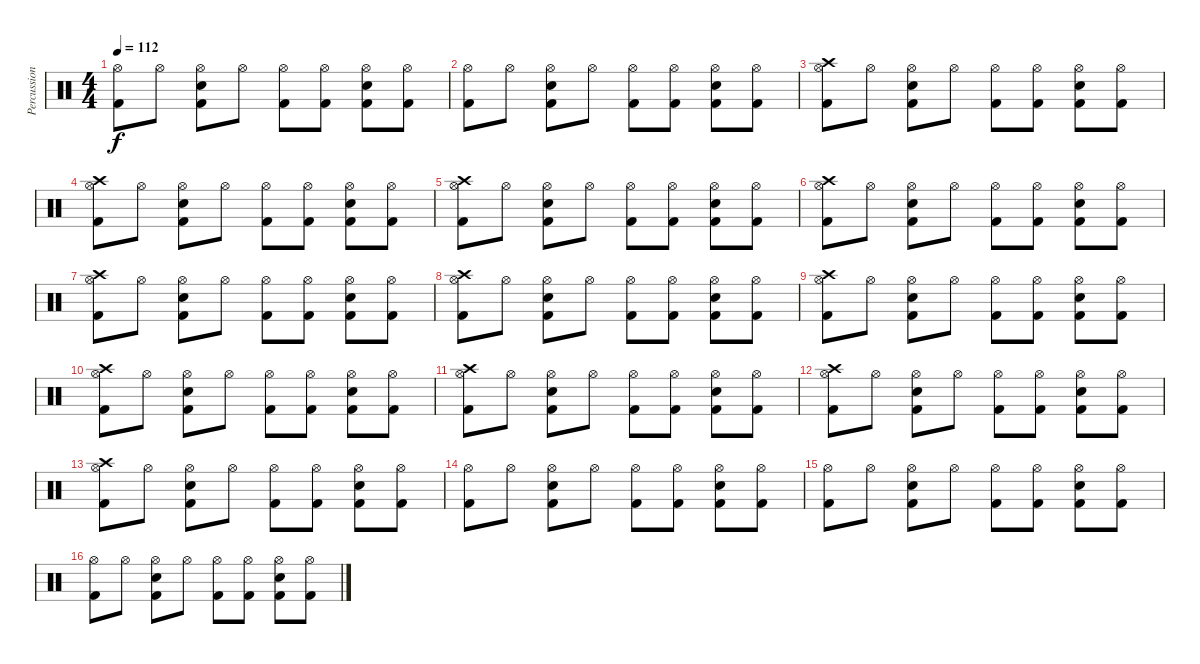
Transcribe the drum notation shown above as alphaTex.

\track ("Percussion" "Percussion") {instrument percussion}
\staff {score}
\articulation defaults
\ts (4 4)
\tempo 112
\clef neutral
\ks c
("Hi-Hat (open)" "Kick (hit) 2").8{dy f} "Hi-Hat (open)".8 ("Hi-Hat (open)" "Electric Snare (hit)" "Kick (hit) 2").8 "Hi-Hat (open)".8 ("Hi-Hat (open)" "Kick (hit) 2").8 ("Hi-Hat (open)" "Kick (hit) 2").8 ("Hi-Hat (open)" "Electric Snare (hit)" "Kick (hit) 2").8 ("Hi-Hat (open)" "Kick (hit) 2").8 |
("Hi-Hat (open)" "Kick (hit) 2").8 "Hi-Hat (open)".8 ("Hi-Hat (open)" "Electric Snare (hit)" "Kick (hit) 2").8 "Hi-Hat (open)".8 ("Hi-Hat (open)" "Kick (hit) 2").8 ("Hi-Hat (open)" "Kick (hit) 2").8 ("Hi-Hat (open)" "Electric Snare (hit)" "Kick (hit) 2").8 ("Hi-Hat (open)" "Kick (hit) 2").8 |
("Hi-Hat (open)" "Crash high (hit)" "Kick (hit) 2").8 "Hi-Hat (open)".8 ("Hi-Hat (open)" "Electric Snare (hit)" "Kick (hit) 2").8 "Hi-Hat (open)".8 ("Hi-Hat (open)" "Kick (hit) 2").8 ("Hi-Hat (open)" "Kick (hit) 2").8 ("Hi-Hat (open)" "Electric Snare (hit)" "Kick (hit) 2").8 ("Hi-Hat (open)" "Kick (hit) 2").8 |
("Hi-Hat (open)" "Crash high (hit)" "Kick (hit) 2").8 "Hi-Hat (open)".8 ("Hi-Hat (open)" "Electric Snare (hit)" "Kick (hit) 2").8 "Hi-Hat (open)".8 ("Hi-Hat (open)" "Kick (hit) 2").8 ("Hi-Hat (open)" "Kick (hit) 2").8 ("Hi-Hat (open)" "Electric Snare (hit)" "Kick (hit) 2").8 ("Hi-Hat (open)" "Kick (hit) 2").8 |
("Hi-Hat (open)" "Crash high (hit)" "Kick (hit) 2").8 "Hi-Hat (open)".8 ("Hi-Hat (open)" "Electric Snare (hit)" "Kick (hit) 2").8 "Hi-Hat (open)".8 ("Hi-Hat (open)" "Kick (hit) 2").8 ("Hi-Hat (open)" "Kick (hit) 2").8 ("Hi-Hat (open)" "Electric Snare (hit)" "Kick (hit) 2").8 ("Hi-Hat (open)" "Kick (hit) 2").8 |
("Hi-Hat (open)" "Crash high (hit)" "Kick (hit) 2").8 "Hi-Hat (open)".8 ("Hi-Hat (open)" "Electric Snare (hit)" "Kick (hit) 2").8 "Hi-Hat (open)".8 ("Hi-Hat (open)" "Kick (hit) 2").8 ("Hi-Hat (open)" "Kick (hit) 2").8 ("Hi-Hat (open)" "Electric Snare (hit)" "Kick (hit) 2").8 ("Hi-Hat (open)" "Kick (hit) 2").8 |
("Hi-Hat (open)" "Crash high (hit)" "Kick (hit) 2").8 "Hi-Hat (open)".8 ("Hi-Hat (open)" "Electric Snare (hit)" "Kick (hit) 2").8 "Hi-Hat (open)".8 ("Hi-Hat (open)" "Kick (hit) 2").8 ("Hi-Hat (open)" "Kick (hit) 2").8 ("Hi-Hat (open)" "Electric Snare (hit)" "Kick (hit) 2").8 ("Hi-Hat (open)" "Kick (hit) 2").8 |
("Hi-Hat (open)" "Crash high (hit)" "Kick (hit) 2").8 "Hi-Hat (open)".8 ("Hi-Hat (open)" "Electric Snare (hit)" "Kick (hit) 2").8 "Hi-Hat (open)".8 ("Hi-Hat (open)" "Kick (hit) 2").8 ("Hi-Hat (open)" "Kick (hit) 2").8 ("Hi-Hat (open)" "Electric Snare (hit)" "Kick (hit) 2").8 ("Hi-Hat (open)" "Kick (hit) 2").8 |
("Hi-Hat (open)" "Crash high (hit)" "Kick (hit) 2").8 "Hi-Hat (open)".8 ("Hi-Hat (open)" "Electric Snare (hit)" "Kick (hit) 2").8 "Hi-Hat (open)".8 ("Hi-Hat (open)" "Kick (hit) 2").8 ("Hi-Hat (open)" "Kick (hit) 2").8 ("Hi-Hat (open)" "Electric Snare (hit)" "Kick (hit) 2").8 ("Hi-Hat (open)" "Kick (hit) 2").8 |
("Hi-Hat (open)" "Crash high (hit)" "Kick (hit) 2").8 "Hi-Hat (open)".8 ("Hi-Hat (open)" "Electric Snare (hit)" "Kick (hit) 2").8 "Hi-Hat (open)".8 ("Hi-Hat (open)" "Kick (hit) 2").8 ("Hi-Hat (open)" "Kick (hit) 2").8 ("Hi-Hat (open)" "Electric Snare (hit)" "Kick (hit) 2").8 ("Hi-Hat (open)" "Kick (hit) 2").8 |
("Hi-Hat (open)" "Crash high (hit)" "Kick (hit) 2").8 "Hi-Hat (open)".8 ("Hi-Hat (open)" "Electric Snare (hit)" "Kick (hit) 2").8 "Hi-Hat (open)".8 ("Hi-Hat (open)" "Kick (hit) 2").8 ("Hi-Hat (open)" "Kick (hit) 2").8 ("Hi-Hat (open)" "Electric Snare (hit)" "Kick (hit) 2").8 ("Hi-Hat (open)" "Kick (hit) 2").8 |
("Hi-Hat (open)" "Crash high (hit)" "Kick (hit) 2").8 "Hi-Hat (open)".8 ("Hi-Hat (open)" "Electric Snare (hit)" "Kick (hit) 2").8 "Hi-Hat (open)".8 ("Hi-Hat (open)" "Kick (hit) 2").8 ("Hi-Hat (open)" "Kick (hit) 2").8 ("Hi-Hat (open)" "Electric Snare (hit)" "Kick (hit) 2").8 ("Hi-Hat (open)" "Kick (hit) 2").8 |
("Hi-Hat (open)" "Crash high (hit)" "Kick (hit) 2").8 "Hi-Hat (open)".8 ("Hi-Hat (open)" "Electric Snare (hit)" "Kick (hit) 2").8 "Hi-Hat (open)".8 ("Hi-Hat (open)" "Kick (hit) 2").8 ("Hi-Hat (open)" "Kick (hit) 2").8 ("Hi-Hat (open)" "Electric Snare (hit)" "Kick (hit) 2").8 ("Hi-Hat (open)" "Kick (hit) 2").8 |
("Hi-Hat (open)" "Kick (hit) 2").8 "Hi-Hat (open)".8 ("Hi-Hat (open)" "Electric Snare (hit)" "Kick (hit) 2").8 "Hi-Hat (open)".8 ("Hi-Hat (open)" "Kick (hit) 2").8 ("Hi-Hat (open)" "Kick (hit) 2").8 ("Hi-Hat (open)" "Electric Snare (hit)" "Kick (hit) 2").8 ("Hi-Hat (open)" "Kick (hit) 2").8 |
("Hi-Hat (open)" "Kick (hit) 2").8 "Hi-Hat (open)".8 ("Hi-Hat (open)" "Electric Snare (hit)" "Kick (hit) 2").8 "Hi-Hat (open)".8 ("Hi-Hat (open)" "Kick (hit) 2").8 ("Hi-Hat (open)" "Kick (hit) 2").8 ("Hi-Hat (open)" "Electric Snare (hit)" "Kick (hit) 2").8 ("Hi-Hat (open)" "Kick (hit) 2").8 |
("Hi-Hat (open)" "Kick (hit) 2").8 "Hi-Hat (open)".8 ("Hi-Hat (open)" "Electric Snare (hit)" "Kick (hit) 2").8 "Hi-Hat (open)".8 ("Hi-Hat (open)" "Kick (hit) 2").8 ("Hi-Hat (open)" "Kick (hit) 2").8 ("Hi-Hat (open)" "Electric Snare (hit)" "Kick (hit) 2").8 ("Hi-Hat (open)" "Kick (hit) 2").8
